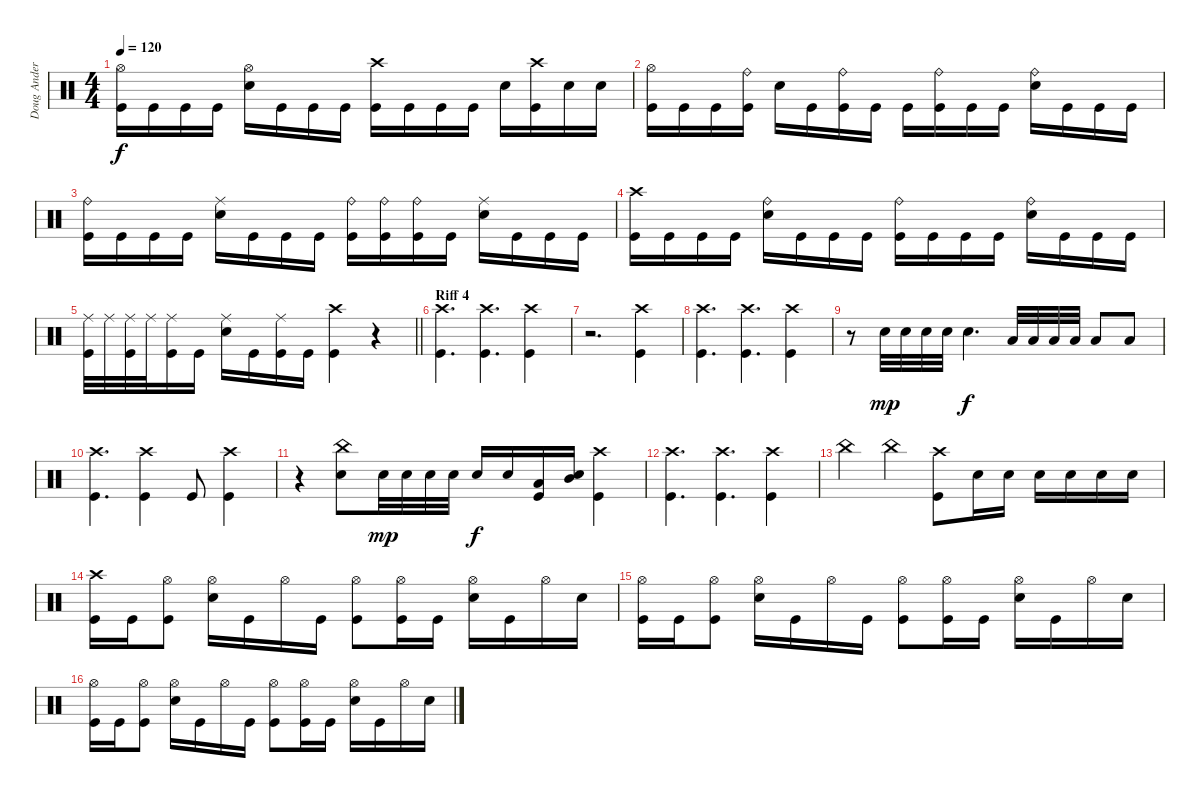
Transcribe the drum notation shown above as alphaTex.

\track ("Doug Anderson" "Doug Ander") {instrument percussion}
\staff {score}
\articulation defaults
\ts (4 4)
\tempo 120
\clef neutral
\ks c
("Kick (hit)" "Hi-Hat (open)").16{dy f} "Kick (hit)".16 "Kick (hit)".16 "Kick (hit)".16 ("Snare (hit) 2" "Hi-Hat (open)").16 "Kick (hit)".16 "Kick (hit)".16 "Kick (hit)".16 ("Kick (hit)" "Crash high (hit)").16 "Kick (hit)".16 "Kick (hit)".16 "Kick (hit)".16 "Snare (hit) 2".16 ("Kick (hit)" "Crash high (hit)").16 "Snare (hit) 2".16 "Snare (hit) 2".16 |
("Kick (hit)" "Hi-Hat (open)").16 "Kick (hit)".16 "Kick (hit)".16 ("Kick (hit)" "Ride (bell)").16 "Snare (hit) 2".16 "Kick (hit)".16 ("Kick (hit)" "Ride (bell)").16 "Kick (hit)".16 "Kick (hit)".16 ("Kick (hit)" "Ride (bell)").16 "Kick (hit)".16 "Kick (hit)".16 ("Snare (hit) 2" "Ride (bell)").16 "Kick (hit)".16 "Kick (hit)".16 "Kick (hit)".16 |
("Kick (hit)" "Ride (bell)").16 "Kick (hit)".16 "Kick (hit)".16 "Kick (hit)".16 ("Snare (hit) 2" "Ride (middle)").16 "Kick (hit)".16 "Kick (hit)".16 "Kick (hit)".16 ("Kick (hit)" "Ride (bell)").16 ("Kick (hit)" "Ride (bell)").16 ("Kick (hit)" "Ride (bell)").16 "Kick (hit)".16 ("Snare (hit) 2" "Ride (middle)").16 "Kick (hit)".16 "Kick (hit)".16 "Kick (hit)".16 |
("Kick (hit)" "Crash high (hit)").16 "Kick (hit)".16 "Kick (hit)".16 "Kick (hit)".16 ("Snare (hit) 2" "Ride (bell)").16 "Kick (hit)".16 "Kick (hit)".16 "Kick (hit)".16 ("Kick (hit)" "Ride (bell)").16 "Kick (hit)".16 "Kick (hit)".16 "Kick (hit)".16 ("Snare (hit) 2" "Ride (bell)").16 "Kick (hit)".16 "Kick (hit)".16 "Kick (hit)".16 |
\barLineRight lightlight
("Ride (middle)" "Kick (hit)").32 "Ride (middle)".32 ("Ride (middle)" "Kick (hit)").32 "Ride (middle)".32 ("Ride (middle)" "Kick (hit)").16 "Kick (hit)".16 ("Snare (hit) 2" "Ride (middle)").16 "Kick (hit)".16 ("Kick (hit)" "Ride (middle)").16 "Kick (hit)".16 ("Kick (hit)" "Crash high (hit)").4 r.4 |
\section ("" "Riff 4")
("Kick (hit)" "Crash high (hit)").4{d} ("Kick (hit)" "Crash high (hit)").4{d} ("Kick (hit)" "Crash high (hit)").4 |
r.2{d} ("Kick (hit)" "Crash high (hit)").4 |
("Kick (hit)" "Crash high (hit)").4{d} ("Kick (hit)" "Crash high (hit)").4{d} ("Kick (hit)" "Crash high (hit)").4 |
r.8 "Snare (hit) 2".32{dy mp} "Snare (hit) 2".32 "Snare (hit) 2".32 "Snare (hit) 2".32 "Snare (hit) 2".4{d dy f} "Low Tom (hit)".32 "Low Tom (hit)".32 "Low Tom (hit)".32 "Low Tom (hit)".32 "Low Tom (hit)".8 "Low Tom (hit)".8 |
("Kick (hit)" "Crash high (hit)").4{d} ("Kick (hit)" "Crash high (hit)").4 "Kick (hit)".8 ("Kick (hit)" "Crash high (hit)").4 |
r.4 ("Snare (hit) 2" "China (hit)").8 "Snare (hit) 2".32{dy mp} "Snare (hit) 2".32 "Snare (hit) 2".32 "Snare (hit) 2".32 "Snare (hit) 2".16{dy f} "Snare (hit) 2".16 ("Kick (hit)" "Low Tom (hit)").16 ("Snare (hit) 2" "Mid Tom (hit)").16 ("Kick (hit)" "Crash high (hit)").4 |
("Kick (hit)" "Crash high (hit)").4{d} ("Kick (hit)" "Crash high (hit)").4{d} ("Kick (hit)" "Crash high (hit)").4 |
"China (hit)".4 "China (hit)".4 ("Kick (hit)" "Crash high (hit)").8 "Snare (hit) 2".16 "Snare (hit) 2".16 "Snare (hit) 2".16 "Snare (hit) 2".16 "Snare (hit) 2".16 "Snare (hit) 2".16 |
("Kick (hit)" "Crash high (hit)").16 "Kick (hit)".16 ("Kick (hit)" "Hi-Hat (open)").8 ("Snare (hit) 2" "Hi-Hat (open)").16 "Kick (hit)".16 "Hi-Hat (open)".16 "Kick (hit)".16 ("Kick (hit)" "Hi-Hat (open)").8 ("Kick (hit)" "Hi-Hat (open)").16 "Kick (hit)".16 ("Snare (hit) 2" "Hi-Hat (open)").16 "Kick (hit)".16 "Hi-Hat (open)".16 "Snare (hit) 2".16 |
("Kick (hit)" "Hi-Hat (open)").16 "Kick (hit)".16 ("Kick (hit)" "Hi-Hat (open)").8 ("Snare (hit) 2" "Hi-Hat (open)").16 "Kick (hit)".16 "Hi-Hat (open)".16 "Kick (hit)".16 ("Kick (hit)" "Hi-Hat (open)").8 ("Kick (hit)" "Hi-Hat (open)").16 "Kick (hit)".16 ("Snare (hit) 2" "Hi-Hat (open)").16 "Kick (hit)".16 "Hi-Hat (open)".16 "Snare (hit) 2".16 |
("Kick (hit)" "Hi-Hat (open)").16 "Kick (hit)".16 ("Kick (hit)" "Hi-Hat (open)").8 ("Snare (hit) 2" "Hi-Hat (open)").16 "Kick (hit)".16 "Hi-Hat (open)".16 "Kick (hit)".16 ("Kick (hit)" "Hi-Hat (open)").8 ("Kick (hit)" "Hi-Hat (open)").16 "Kick (hit)".16 ("Snare (hit) 2" "Hi-Hat (open)").16 "Kick (hit)".16 "Hi-Hat (open)".16 "Snare (hit) 2".16
